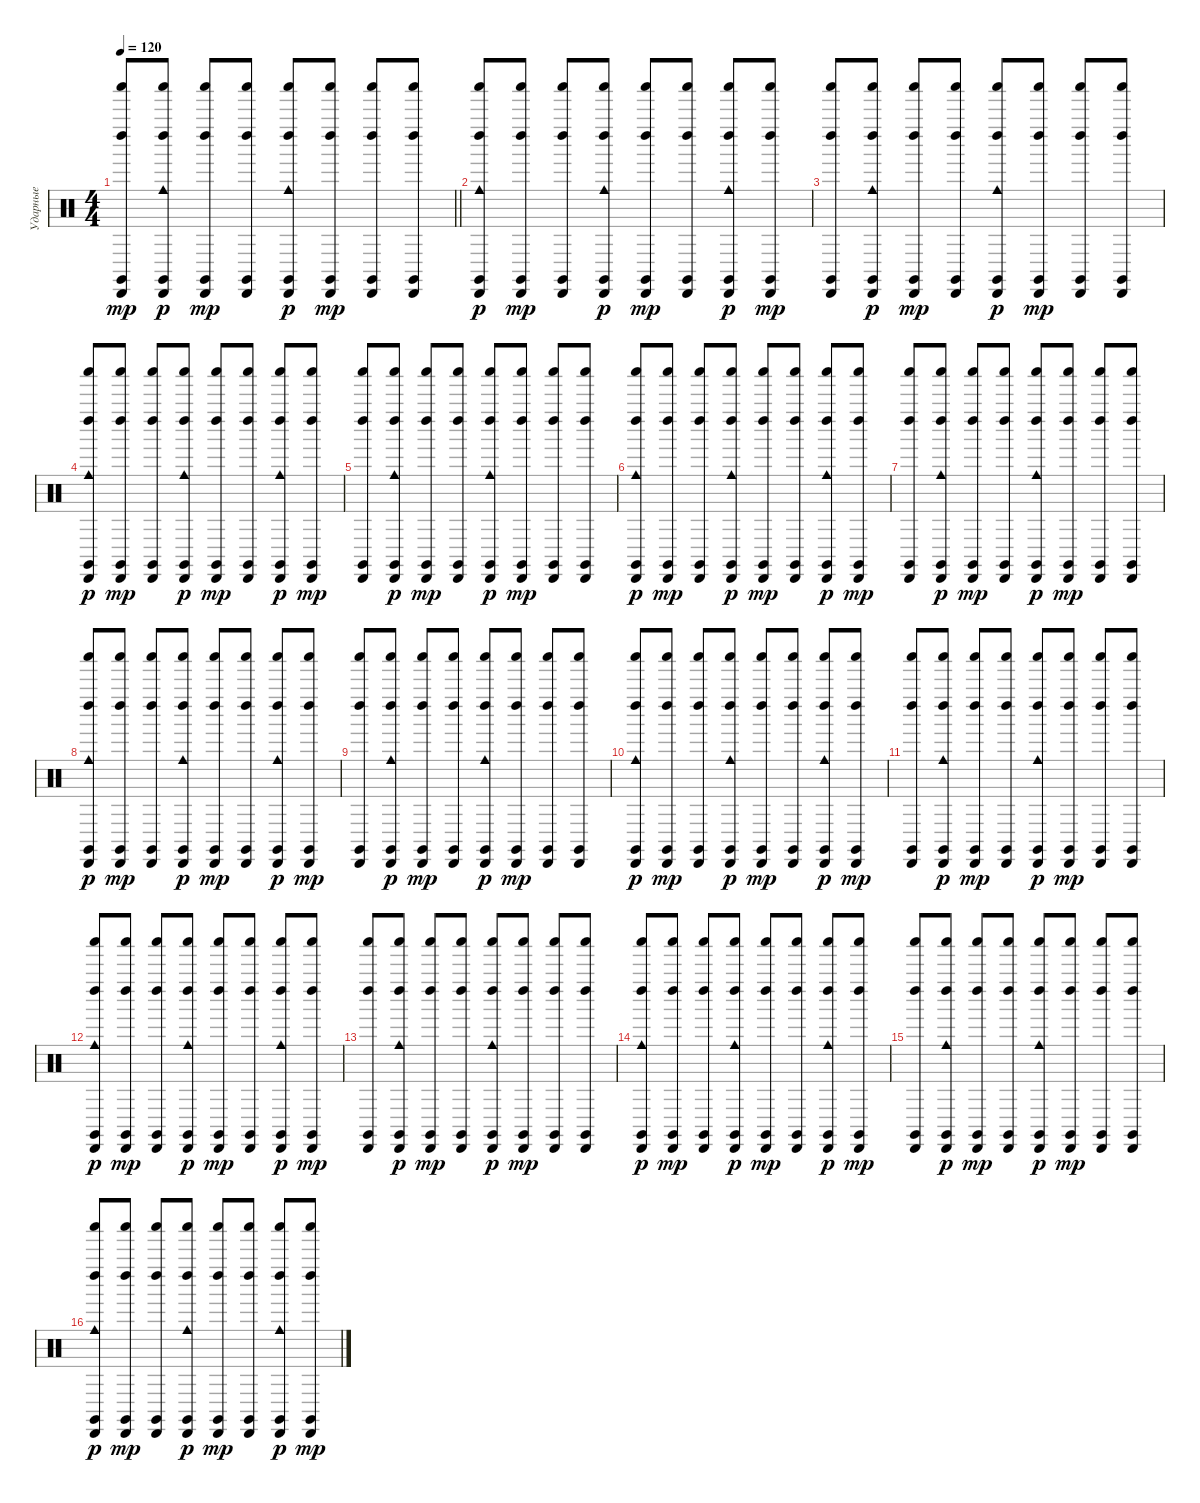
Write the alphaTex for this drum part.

\track ("Ударные" "Ударные") {instrument percussion}
\staff {score}
\articulation defaults
\ts (4 4)
\tempo 120
\clef neutral
\barLineRight lightlight
\ks c
("Claves (hit)" "Shaker (hit)" "Cabasa (hit)" "Left Maraca (hit)").8{dy mp} ("Claves (hit)" "Shaker (hit)" "Cabasa (hit)" "Left Maraca (hit)" "Cowbell medium (hit)").8{dy p} ("Claves (hit)" "Shaker (hit)" "Cabasa (hit)" "Left Maraca (hit)").8{dy mp} ("Claves (hit)" "Shaker (hit)" "Cabasa (hit)" "Left Maraca (hit)").8 ("Claves (hit)" "Shaker (hit)" "Cabasa (hit)" "Left Maraca (hit)" "Cowbell medium (hit)").8{dy p} ("Claves (hit)" "Shaker (hit)" "Cabasa (hit)" "Left Maraca (hit)").8{dy mp} ("Claves (hit)" "Shaker (hit)" "Cabasa (hit)" "Left Maraca (hit)").8 ("Claves (hit)" "Shaker (hit)" "Cabasa (hit)" "Left Maraca (hit)").8 |
("Claves (hit)" "Shaker (hit)" "Cabasa (hit)" "Left Maraca (hit)" "Cowbell medium (hit)").8{dy p} ("Claves (hit)" "Shaker (hit)" "Cabasa (hit)" "Left Maraca (hit)").8{dy mp} ("Claves (hit)" "Shaker (hit)" "Cabasa (hit)" "Left Maraca (hit)").8 ("Claves (hit)" "Shaker (hit)" "Cabasa (hit)" "Left Maraca (hit)" "Cowbell medium (hit)").8{dy p} ("Claves (hit)" "Shaker (hit)" "Cabasa (hit)" "Left Maraca (hit)").8{dy mp} ("Claves (hit)" "Shaker (hit)" "Cabasa (hit)" "Left Maraca (hit)").8 ("Claves (hit)" "Shaker (hit)" "Cabasa (hit)" "Left Maraca (hit)" "Cowbell medium (hit)").8{dy p} ("Claves (hit)" "Shaker (hit)" "Cabasa (hit)" "Left Maraca (hit)").8{dy mp} |
("Claves (hit)" "Shaker (hit)" "Cabasa (hit)" "Left Maraca (hit)").8 ("Claves (hit)" "Shaker (hit)" "Cabasa (hit)" "Left Maraca (hit)" "Cowbell medium (hit)").8{dy p} ("Claves (hit)" "Shaker (hit)" "Cabasa (hit)" "Left Maraca (hit)").8{dy mp} ("Claves (hit)" "Shaker (hit)" "Cabasa (hit)" "Left Maraca (hit)").8 ("Claves (hit)" "Shaker (hit)" "Cabasa (hit)" "Left Maraca (hit)" "Cowbell medium (hit)").8{dy p} ("Claves (hit)" "Shaker (hit)" "Cabasa (hit)" "Left Maraca (hit)").8{dy mp} ("Claves (hit)" "Shaker (hit)" "Cabasa (hit)" "Left Maraca (hit)").8 ("Claves (hit)" "Shaker (hit)" "Cabasa (hit)" "Left Maraca (hit)").8 |
("Claves (hit)" "Shaker (hit)" "Cabasa (hit)" "Left Maraca (hit)" "Cowbell medium (hit)").8{dy p} ("Claves (hit)" "Shaker (hit)" "Cabasa (hit)" "Left Maraca (hit)").8{dy mp} ("Claves (hit)" "Shaker (hit)" "Cabasa (hit)" "Left Maraca (hit)").8 ("Claves (hit)" "Shaker (hit)" "Cabasa (hit)" "Left Maraca (hit)" "Cowbell medium (hit)").8{dy p} ("Claves (hit)" "Shaker (hit)" "Cabasa (hit)" "Left Maraca (hit)").8{dy mp} ("Claves (hit)" "Shaker (hit)" "Cabasa (hit)" "Left Maraca (hit)").8 ("Claves (hit)" "Shaker (hit)" "Cabasa (hit)" "Left Maraca (hit)" "Cowbell medium (hit)").8{dy p} ("Claves (hit)" "Shaker (hit)" "Cabasa (hit)" "Left Maraca (hit)").8{dy mp} |
("Claves (hit)" "Shaker (hit)" "Cabasa (hit)" "Left Maraca (hit)").8 ("Claves (hit)" "Shaker (hit)" "Cabasa (hit)" "Left Maraca (hit)" "Cowbell medium (hit)").8{dy p} ("Claves (hit)" "Shaker (hit)" "Cabasa (hit)" "Left Maraca (hit)").8{dy mp} ("Claves (hit)" "Shaker (hit)" "Cabasa (hit)" "Left Maraca (hit)").8 ("Claves (hit)" "Shaker (hit)" "Cabasa (hit)" "Left Maraca (hit)" "Cowbell medium (hit)").8{dy p} ("Claves (hit)" "Shaker (hit)" "Cabasa (hit)" "Left Maraca (hit)").8{dy mp} ("Claves (hit)" "Shaker (hit)" "Cabasa (hit)" "Left Maraca (hit)").8 ("Claves (hit)" "Shaker (hit)" "Cabasa (hit)" "Left Maraca (hit)").8 |
("Claves (hit)" "Shaker (hit)" "Cabasa (hit)" "Left Maraca (hit)" "Cowbell medium (hit)").8{dy p} ("Claves (hit)" "Shaker (hit)" "Cabasa (hit)" "Left Maraca (hit)").8{dy mp} ("Claves (hit)" "Shaker (hit)" "Cabasa (hit)" "Left Maraca (hit)").8 ("Claves (hit)" "Shaker (hit)" "Cabasa (hit)" "Left Maraca (hit)" "Cowbell medium (hit)").8{dy p} ("Claves (hit)" "Shaker (hit)" "Cabasa (hit)" "Left Maraca (hit)").8{dy mp} ("Claves (hit)" "Shaker (hit)" "Cabasa (hit)" "Left Maraca (hit)").8 ("Claves (hit)" "Shaker (hit)" "Cabasa (hit)" "Left Maraca (hit)" "Cowbell medium (hit)").8{dy p} ("Claves (hit)" "Shaker (hit)" "Cabasa (hit)" "Left Maraca (hit)").8{dy mp} |
("Claves (hit)" "Shaker (hit)" "Cabasa (hit)" "Left Maraca (hit)").8 ("Claves (hit)" "Shaker (hit)" "Cabasa (hit)" "Left Maraca (hit)" "Cowbell medium (hit)").8{dy p} ("Claves (hit)" "Shaker (hit)" "Cabasa (hit)" "Left Maraca (hit)").8{dy mp} ("Claves (hit)" "Shaker (hit)" "Cabasa (hit)" "Left Maraca (hit)").8 ("Claves (hit)" "Shaker (hit)" "Cabasa (hit)" "Left Maraca (hit)" "Cowbell medium (hit)").8{dy p} ("Claves (hit)" "Shaker (hit)" "Cabasa (hit)" "Left Maraca (hit)").8{dy mp} ("Claves (hit)" "Shaker (hit)" "Cabasa (hit)" "Left Maraca (hit)").8 ("Claves (hit)" "Shaker (hit)" "Cabasa (hit)" "Left Maraca (hit)").8 |
("Claves (hit)" "Shaker (hit)" "Cabasa (hit)" "Left Maraca (hit)" "Cowbell medium (hit)").8{dy p} ("Claves (hit)" "Shaker (hit)" "Cabasa (hit)" "Left Maraca (hit)").8{dy mp} ("Claves (hit)" "Shaker (hit)" "Cabasa (hit)" "Left Maraca (hit)").8 ("Claves (hit)" "Shaker (hit)" "Cabasa (hit)" "Left Maraca (hit)" "Cowbell medium (hit)").8{dy p} ("Claves (hit)" "Shaker (hit)" "Cabasa (hit)" "Left Maraca (hit)").8{dy mp} ("Claves (hit)" "Shaker (hit)" "Cabasa (hit)" "Left Maraca (hit)").8 ("Claves (hit)" "Shaker (hit)" "Cabasa (hit)" "Left Maraca (hit)" "Cowbell medium (hit)").8{dy p} ("Claves (hit)" "Shaker (hit)" "Cabasa (hit)" "Left Maraca (hit)").8{dy mp} |
("Claves (hit)" "Shaker (hit)" "Cabasa (hit)" "Left Maraca (hit)").8 ("Claves (hit)" "Shaker (hit)" "Cabasa (hit)" "Left Maraca (hit)" "Cowbell medium (hit)").8{dy p} ("Claves (hit)" "Shaker (hit)" "Cabasa (hit)" "Left Maraca (hit)").8{dy mp} ("Claves (hit)" "Shaker (hit)" "Cabasa (hit)" "Left Maraca (hit)").8 ("Claves (hit)" "Shaker (hit)" "Cabasa (hit)" "Left Maraca (hit)" "Cowbell medium (hit)").8{dy p} ("Claves (hit)" "Shaker (hit)" "Cabasa (hit)" "Left Maraca (hit)").8{dy mp} ("Claves (hit)" "Shaker (hit)" "Cabasa (hit)" "Left Maraca (hit)").8 ("Claves (hit)" "Shaker (hit)" "Cabasa (hit)" "Left Maraca (hit)").8 |
("Claves (hit)" "Shaker (hit)" "Cabasa (hit)" "Left Maraca (hit)" "Cowbell medium (hit)").8{dy p} ("Claves (hit)" "Shaker (hit)" "Cabasa (hit)" "Left Maraca (hit)").8{dy mp} ("Claves (hit)" "Shaker (hit)" "Cabasa (hit)" "Left Maraca (hit)").8 ("Claves (hit)" "Shaker (hit)" "Cabasa (hit)" "Left Maraca (hit)" "Cowbell medium (hit)").8{dy p} ("Claves (hit)" "Shaker (hit)" "Cabasa (hit)" "Left Maraca (hit)").8{dy mp} ("Claves (hit)" "Shaker (hit)" "Cabasa (hit)" "Left Maraca (hit)").8 ("Claves (hit)" "Shaker (hit)" "Cabasa (hit)" "Left Maraca (hit)" "Cowbell medium (hit)").8{dy p} ("Claves (hit)" "Shaker (hit)" "Cabasa (hit)" "Left Maraca (hit)").8{dy mp} |
("Claves (hit)" "Shaker (hit)" "Cabasa (hit)" "Left Maraca (hit)").8 ("Claves (hit)" "Shaker (hit)" "Cabasa (hit)" "Left Maraca (hit)" "Cowbell medium (hit)").8{dy p} ("Claves (hit)" "Shaker (hit)" "Cabasa (hit)" "Left Maraca (hit)").8{dy mp} ("Claves (hit)" "Shaker (hit)" "Cabasa (hit)" "Left Maraca (hit)").8 ("Claves (hit)" "Shaker (hit)" "Cabasa (hit)" "Left Maraca (hit)" "Cowbell medium (hit)").8{dy p} ("Claves (hit)" "Shaker (hit)" "Cabasa (hit)" "Left Maraca (hit)").8{dy mp} ("Claves (hit)" "Shaker (hit)" "Cabasa (hit)" "Left Maraca (hit)").8 ("Claves (hit)" "Shaker (hit)" "Cabasa (hit)" "Left Maraca (hit)").8 |
("Claves (hit)" "Shaker (hit)" "Cabasa (hit)" "Left Maraca (hit)" "Cowbell medium (hit)").8{dy p} ("Claves (hit)" "Shaker (hit)" "Cabasa (hit)" "Left Maraca (hit)").8{dy mp} ("Claves (hit)" "Shaker (hit)" "Cabasa (hit)" "Left Maraca (hit)").8 ("Claves (hit)" "Shaker (hit)" "Cabasa (hit)" "Left Maraca (hit)" "Cowbell medium (hit)").8{dy p} ("Claves (hit)" "Shaker (hit)" "Cabasa (hit)" "Left Maraca (hit)").8{dy mp} ("Claves (hit)" "Shaker (hit)" "Cabasa (hit)" "Left Maraca (hit)").8 ("Claves (hit)" "Shaker (hit)" "Cabasa (hit)" "Left Maraca (hit)" "Cowbell medium (hit)").8{dy p} ("Claves (hit)" "Shaker (hit)" "Cabasa (hit)" "Left Maraca (hit)").8{dy mp} |
("Claves (hit)" "Shaker (hit)" "Cabasa (hit)" "Left Maraca (hit)").8 ("Claves (hit)" "Shaker (hit)" "Cabasa (hit)" "Left Maraca (hit)" "Cowbell medium (hit)").8{dy p} ("Claves (hit)" "Shaker (hit)" "Cabasa (hit)" "Left Maraca (hit)").8{dy mp} ("Claves (hit)" "Shaker (hit)" "Cabasa (hit)" "Left Maraca (hit)").8 ("Claves (hit)" "Shaker (hit)" "Cabasa (hit)" "Left Maraca (hit)" "Cowbell medium (hit)").8{dy p} ("Claves (hit)" "Shaker (hit)" "Cabasa (hit)" "Left Maraca (hit)").8{dy mp} ("Claves (hit)" "Shaker (hit)" "Cabasa (hit)" "Left Maraca (hit)").8 ("Claves (hit)" "Shaker (hit)" "Cabasa (hit)" "Left Maraca (hit)").8 |
("Claves (hit)" "Shaker (hit)" "Cabasa (hit)" "Left Maraca (hit)" "Cowbell medium (hit)").8{dy p} ("Claves (hit)" "Shaker (hit)" "Cabasa (hit)" "Left Maraca (hit)").8{dy mp} ("Claves (hit)" "Shaker (hit)" "Cabasa (hit)" "Left Maraca (hit)").8 ("Claves (hit)" "Shaker (hit)" "Cabasa (hit)" "Left Maraca (hit)" "Cowbell medium (hit)").8{dy p} ("Claves (hit)" "Shaker (hit)" "Cabasa (hit)" "Left Maraca (hit)").8{dy mp} ("Claves (hit)" "Shaker (hit)" "Cabasa (hit)" "Left Maraca (hit)").8 ("Claves (hit)" "Shaker (hit)" "Cabasa (hit)" "Left Maraca (hit)" "Cowbell medium (hit)").8{dy p} ("Claves (hit)" "Shaker (hit)" "Cabasa (hit)" "Left Maraca (hit)").8{dy mp} |
("Claves (hit)" "Shaker (hit)" "Cabasa (hit)" "Left Maraca (hit)").8 ("Claves (hit)" "Shaker (hit)" "Cabasa (hit)" "Left Maraca (hit)" "Cowbell medium (hit)").8{dy p} ("Claves (hit)" "Shaker (hit)" "Cabasa (hit)" "Left Maraca (hit)").8{dy mp} ("Claves (hit)" "Shaker (hit)" "Cabasa (hit)" "Left Maraca (hit)").8 ("Claves (hit)" "Shaker (hit)" "Cabasa (hit)" "Left Maraca (hit)" "Cowbell medium (hit)").8{dy p} ("Claves (hit)" "Shaker (hit)" "Cabasa (hit)" "Left Maraca (hit)").8{dy mp} ("Claves (hit)" "Shaker (hit)" "Cabasa (hit)" "Left Maraca (hit)").8 ("Claves (hit)" "Shaker (hit)" "Cabasa (hit)" "Left Maraca (hit)").8 |
("Claves (hit)" "Shaker (hit)" "Cabasa (hit)" "Left Maraca (hit)" "Cowbell medium (hit)").8{dy p} ("Claves (hit)" "Shaker (hit)" "Cabasa (hit)" "Left Maraca (hit)").8{dy mp} ("Claves (hit)" "Shaker (hit)" "Cabasa (hit)" "Left Maraca (hit)").8 ("Claves (hit)" "Shaker (hit)" "Cabasa (hit)" "Left Maraca (hit)" "Cowbell medium (hit)").8{dy p} ("Claves (hit)" "Shaker (hit)" "Cabasa (hit)" "Left Maraca (hit)").8{dy mp} ("Claves (hit)" "Shaker (hit)" "Cabasa (hit)" "Left Maraca (hit)").8 ("Claves (hit)" "Shaker (hit)" "Cabasa (hit)" "Left Maraca (hit)" "Cowbell medium (hit)").8{dy p} ("Claves (hit)" "Shaker (hit)" "Cabasa (hit)" "Left Maraca (hit)").8{dy mp}
